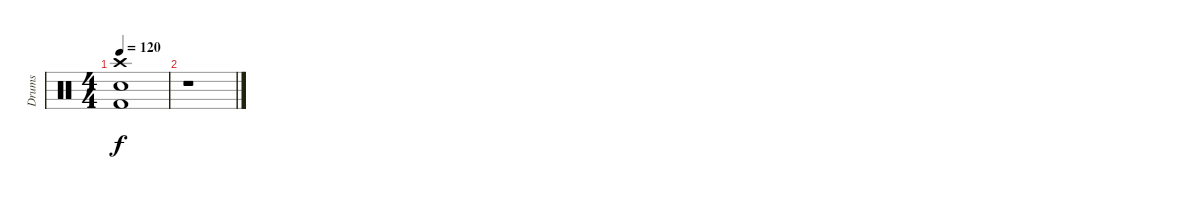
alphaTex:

\track ("Drums" "Drums") {instrument percussion}
\staff {score}
\articulation defaults
\ts (4 4)
\tempo 120
\clef neutral
\ks c
("Crash high (hit)" "Electric Snare (hit)" "Kick (hit) 2").1{dy f} |
r.1
